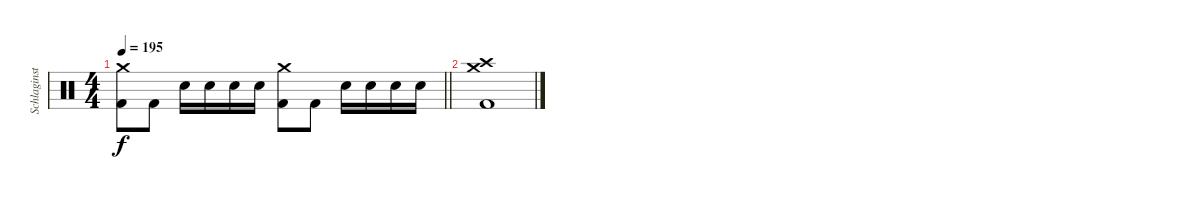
\track ("Schlaginstrumente - Auswahl" "Schlaginst") {instrument percussion}
\staff {score}
\articulation defaults
\ts (4 4)
\tempo 195
\clef neutral
\barLineRight lightlight
\ks c
("Crash medium (hit)" "Kick (hit) 2").8{dy f} "Kick (hit) 2".8 "Snare (hit) 2".16 "Snare (hit) 2".16 "Snare (hit) 2".16 "Snare (hit) 2".16 ("Crash medium (hit)" "Kick (hit) 2").8 "Kick (hit) 2".8 "Snare (hit) 2".16 "Snare (hit) 2".16 "Snare (hit) 2".16 "Snare (hit) 2".16 |
("Crash medium (hit)" "Crash high (hit)" "Kick (hit) 2").1
